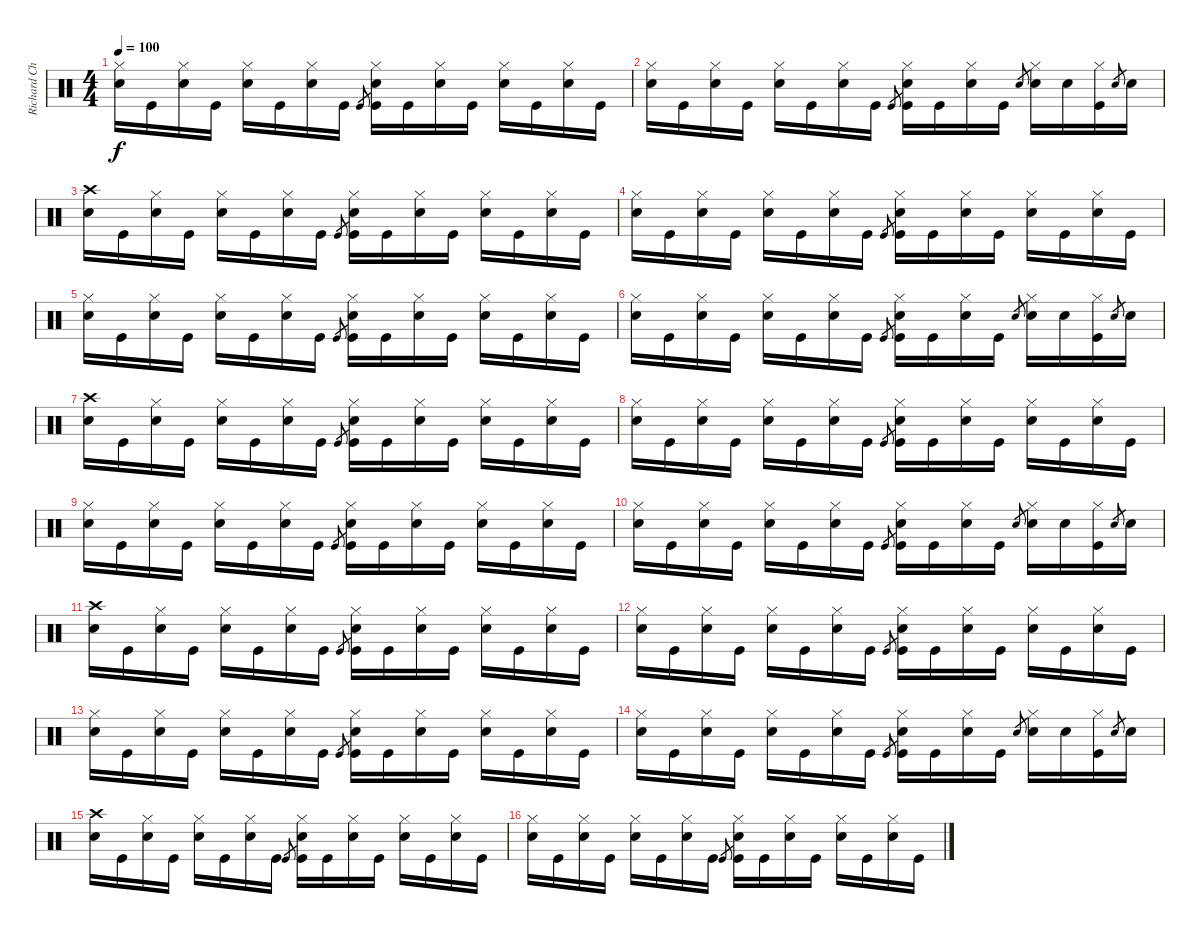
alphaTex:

\track ("Richard Chadwick - Drums" "Richard Ch") {instrument percussion}
\staff {score}
\articulation defaults
\ts (4 4)
\tempo 100
\clef neutral
\ks c
("Hi-Hat (closed)" "Snare (hit) 2").16{dy f} "Kick (hit)".16 ("Hi-Hat (closed)" "Snare (hit) 2").16 "Kick (hit)".16 ("Hi-Hat (closed)" "Snare (hit) 2").16 "Kick (hit)".16 ("Hi-Hat (closed)" "Snare (hit) 2").16 "Kick (hit)".16 "Kick (hit)".8{gr} ("Hi-Hat (closed)" "Snare (hit) 2" "Kick (hit)").16 "Kick (hit)".16 ("Hi-Hat (closed)" "Snare (hit) 2").16 "Kick (hit)".16 ("Hi-Hat (closed)" "Snare (hit) 2").16 "Kick (hit)".16 ("Hi-Hat (closed)" "Snare (hit) 2").16 "Kick (hit)".16 |
("Hi-Hat (closed)" "Snare (hit) 2").16 "Kick (hit)".16 ("Hi-Hat (closed)" "Snare (hit) 2").16 "Kick (hit)".16 ("Hi-Hat (closed)" "Snare (hit) 2").16 "Kick (hit)".16 ("Hi-Hat (closed)" "Snare (hit) 2").16 "Kick (hit)".16 "Kick (hit)".8{gr} ("Hi-Hat (closed)" "Snare (hit) 2" "Kick (hit)").16 "Kick (hit)".16 ("Hi-Hat (closed)" "Snare (hit) 2").16 "Kick (hit)".16 "Snare (hit) 2".8{gr} ("Hi-Hat (closed)" "Snare (hit) 2").16 "Snare (hit) 2".16 ("Hi-Hat (closed)" "Kick (hit)").16 "Snare (hit) 2".8{gr} "Snare (hit) 2".16 |
("Crash high (hit)" "Snare (hit) 2").16 "Kick (hit)".16 ("Hi-Hat (closed)" "Snare (hit) 2").16 "Kick (hit)".16 ("Hi-Hat (closed)" "Snare (hit) 2").16 "Kick (hit)".16 ("Hi-Hat (closed)" "Snare (hit) 2").16 "Kick (hit)".16 "Kick (hit)".8{gr} ("Hi-Hat (closed)" "Snare (hit) 2" "Kick (hit)").16 "Kick (hit)".16 ("Hi-Hat (closed)" "Snare (hit) 2").16 "Kick (hit)".16 ("Hi-Hat (closed)" "Snare (hit) 2").16 "Kick (hit)".16 ("Hi-Hat (closed)" "Snare (hit) 2").16 "Kick (hit)".16 |
("Hi-Hat (closed)" "Snare (hit) 2").16 "Kick (hit)".16 ("Hi-Hat (closed)" "Snare (hit) 2").16 "Kick (hit)".16 ("Hi-Hat (closed)" "Snare (hit) 2").16 "Kick (hit)".16 ("Hi-Hat (closed)" "Snare (hit) 2").16 "Kick (hit)".16 "Kick (hit)".8{gr} ("Hi-Hat (closed)" "Snare (hit) 2" "Kick (hit)").16 "Kick (hit)".16 ("Hi-Hat (closed)" "Snare (hit) 2").16 "Kick (hit)".16 ("Hi-Hat (closed)" "Snare (hit) 2").16 "Kick (hit)".16 ("Hi-Hat (closed)" "Snare (hit) 2").16 "Kick (hit)".16 |
("Hi-Hat (closed)" "Snare (hit) 2").16 "Kick (hit)".16 ("Hi-Hat (closed)" "Snare (hit) 2").16 "Kick (hit)".16 ("Hi-Hat (closed)" "Snare (hit) 2").16 "Kick (hit)".16 ("Hi-Hat (closed)" "Snare (hit) 2").16 "Kick (hit)".16 "Kick (hit)".8{gr} ("Hi-Hat (closed)" "Snare (hit) 2" "Kick (hit)").16 "Kick (hit)".16 ("Hi-Hat (closed)" "Snare (hit) 2").16 "Kick (hit)".16 ("Hi-Hat (closed)" "Snare (hit) 2").16 "Kick (hit)".16 ("Hi-Hat (closed)" "Snare (hit) 2").16 "Kick (hit)".16 |
("Hi-Hat (closed)" "Snare (hit) 2").16 "Kick (hit)".16 ("Hi-Hat (closed)" "Snare (hit) 2").16 "Kick (hit)".16 ("Hi-Hat (closed)" "Snare (hit) 2").16 "Kick (hit)".16 ("Hi-Hat (closed)" "Snare (hit) 2").16 "Kick (hit)".16 "Kick (hit)".8{gr} ("Hi-Hat (closed)" "Snare (hit) 2" "Kick (hit)").16 "Kick (hit)".16 ("Hi-Hat (closed)" "Snare (hit) 2").16 "Kick (hit)".16 "Snare (hit) 2".8{gr} ("Hi-Hat (closed)" "Snare (hit) 2").16 "Snare (hit) 2".16 ("Hi-Hat (closed)" "Kick (hit)").16 "Snare (hit) 2".8{gr} "Snare (hit) 2".16 |
("Crash high (hit)" "Snare (hit) 2").16 "Kick (hit)".16 ("Hi-Hat (closed)" "Snare (hit) 2").16 "Kick (hit)".16 ("Hi-Hat (closed)" "Snare (hit) 2").16 "Kick (hit)".16 ("Hi-Hat (closed)" "Snare (hit) 2").16 "Kick (hit)".16 "Kick (hit)".8{gr} ("Hi-Hat (closed)" "Snare (hit) 2" "Kick (hit)").16 "Kick (hit)".16 ("Hi-Hat (closed)" "Snare (hit) 2").16 "Kick (hit)".16 ("Hi-Hat (closed)" "Snare (hit) 2").16 "Kick (hit)".16 ("Hi-Hat (closed)" "Snare (hit) 2").16 "Kick (hit)".16 |
("Hi-Hat (closed)" "Snare (hit) 2").16 "Kick (hit)".16 ("Hi-Hat (closed)" "Snare (hit) 2").16 "Kick (hit)".16 ("Hi-Hat (closed)" "Snare (hit) 2").16 "Kick (hit)".16 ("Hi-Hat (closed)" "Snare (hit) 2").16 "Kick (hit)".16 "Kick (hit)".8{gr} ("Hi-Hat (closed)" "Snare (hit) 2" "Kick (hit)").16 "Kick (hit)".16 ("Hi-Hat (closed)" "Snare (hit) 2").16 "Kick (hit)".16 ("Hi-Hat (closed)" "Snare (hit) 2").16 "Kick (hit)".16 ("Hi-Hat (closed)" "Snare (hit) 2").16 "Kick (hit)".16 |
("Hi-Hat (closed)" "Snare (hit) 2").16 "Kick (hit)".16 ("Hi-Hat (closed)" "Snare (hit) 2").16 "Kick (hit)".16 ("Hi-Hat (closed)" "Snare (hit) 2").16 "Kick (hit)".16 ("Hi-Hat (closed)" "Snare (hit) 2").16 "Kick (hit)".16 "Kick (hit)".8{gr} ("Hi-Hat (closed)" "Snare (hit) 2" "Kick (hit)").16 "Kick (hit)".16 ("Hi-Hat (closed)" "Snare (hit) 2").16 "Kick (hit)".16 ("Hi-Hat (closed)" "Snare (hit) 2").16 "Kick (hit)".16 ("Hi-Hat (closed)" "Snare (hit) 2").16 "Kick (hit)".16 |
("Hi-Hat (closed)" "Snare (hit) 2").16 "Kick (hit)".16 ("Hi-Hat (closed)" "Snare (hit) 2").16 "Kick (hit)".16 ("Hi-Hat (closed)" "Snare (hit) 2").16 "Kick (hit)".16 ("Hi-Hat (closed)" "Snare (hit) 2").16 "Kick (hit)".16 "Kick (hit)".8{gr} ("Hi-Hat (closed)" "Snare (hit) 2" "Kick (hit)").16 "Kick (hit)".16 ("Hi-Hat (closed)" "Snare (hit) 2").16 "Kick (hit)".16 "Snare (hit) 2".8{gr} ("Hi-Hat (closed)" "Snare (hit) 2").16 "Snare (hit) 2".16 ("Hi-Hat (closed)" "Kick (hit)").16 "Snare (hit) 2".8{gr} "Snare (hit) 2".16 |
("Crash high (hit)" "Snare (hit) 2").16 "Kick (hit)".16 ("Hi-Hat (closed)" "Snare (hit) 2").16 "Kick (hit)".16 ("Hi-Hat (closed)" "Snare (hit) 2").16 "Kick (hit)".16 ("Hi-Hat (closed)" "Snare (hit) 2").16 "Kick (hit)".16 "Kick (hit)".8{gr} ("Hi-Hat (closed)" "Snare (hit) 2" "Kick (hit)").16 "Kick (hit)".16 ("Hi-Hat (closed)" "Snare (hit) 2").16 "Kick (hit)".16 ("Hi-Hat (closed)" "Snare (hit) 2").16 "Kick (hit)".16 ("Hi-Hat (closed)" "Snare (hit) 2").16 "Kick (hit)".16 |
("Hi-Hat (closed)" "Snare (hit) 2").16 "Kick (hit)".16 ("Hi-Hat (closed)" "Snare (hit) 2").16 "Kick (hit)".16 ("Hi-Hat (closed)" "Snare (hit) 2").16 "Kick (hit)".16 ("Hi-Hat (closed)" "Snare (hit) 2").16 "Kick (hit)".16 "Kick (hit)".8{gr} ("Hi-Hat (closed)" "Snare (hit) 2" "Kick (hit)").16 "Kick (hit)".16 ("Hi-Hat (closed)" "Snare (hit) 2").16 "Kick (hit)".16 ("Hi-Hat (closed)" "Snare (hit) 2").16 "Kick (hit)".16 ("Hi-Hat (closed)" "Snare (hit) 2").16 "Kick (hit)".16 |
("Hi-Hat (closed)" "Snare (hit) 2").16 "Kick (hit)".16 ("Hi-Hat (closed)" "Snare (hit) 2").16 "Kick (hit)".16 ("Hi-Hat (closed)" "Snare (hit) 2").16 "Kick (hit)".16 ("Hi-Hat (closed)" "Snare (hit) 2").16 "Kick (hit)".16 "Kick (hit)".8{gr} ("Hi-Hat (closed)" "Snare (hit) 2" "Kick (hit)").16 "Kick (hit)".16 ("Hi-Hat (closed)" "Snare (hit) 2").16 "Kick (hit)".16 ("Hi-Hat (closed)" "Snare (hit) 2").16 "Kick (hit)".16 ("Hi-Hat (closed)" "Snare (hit) 2").16 "Kick (hit)".16 |
("Hi-Hat (closed)" "Snare (hit) 2").16 "Kick (hit)".16 ("Hi-Hat (closed)" "Snare (hit) 2").16 "Kick (hit)".16 ("Hi-Hat (closed)" "Snare (hit) 2").16 "Kick (hit)".16 ("Hi-Hat (closed)" "Snare (hit) 2").16 "Kick (hit)".16 "Kick (hit)".8{gr} ("Hi-Hat (closed)" "Snare (hit) 2" "Kick (hit)").16 "Kick (hit)".16 ("Hi-Hat (closed)" "Snare (hit) 2").16 "Kick (hit)".16 "Snare (hit) 2".8{gr} ("Hi-Hat (closed)" "Snare (hit) 2").16 "Snare (hit) 2".16 ("Hi-Hat (closed)" "Kick (hit)").16 "Snare (hit) 2".8{gr} "Snare (hit) 2".16 |
("Crash high (hit)" "Snare (hit) 2").16 "Kick (hit)".16 ("Hi-Hat (closed)" "Snare (hit) 2").16 "Kick (hit)".16 ("Hi-Hat (closed)" "Snare (hit) 2").16 "Kick (hit)".16 ("Hi-Hat (closed)" "Snare (hit) 2").16 "Kick (hit)".16 "Kick (hit)".8{gr} ("Hi-Hat (closed)" "Snare (hit) 2" "Kick (hit)").16 "Kick (hit)".16 ("Hi-Hat (closed)" "Snare (hit) 2").16 "Kick (hit)".16 ("Hi-Hat (closed)" "Snare (hit) 2").16 "Kick (hit)".16 ("Hi-Hat (closed)" "Snare (hit) 2").16 "Kick (hit)".16 |
("Hi-Hat (closed)" "Snare (hit) 2").16 "Kick (hit)".16 ("Hi-Hat (closed)" "Snare (hit) 2").16 "Kick (hit)".16 ("Hi-Hat (closed)" "Snare (hit) 2").16 "Kick (hit)".16 ("Hi-Hat (closed)" "Snare (hit) 2").16 "Kick (hit)".16 "Kick (hit)".8{gr} ("Hi-Hat (closed)" "Snare (hit) 2" "Kick (hit)").16 "Kick (hit)".16 ("Hi-Hat (closed)" "Snare (hit) 2").16 "Kick (hit)".16 ("Hi-Hat (closed)" "Snare (hit) 2").16 "Kick (hit)".16 ("Hi-Hat (closed)" "Snare (hit) 2").16 "Kick (hit)".16
